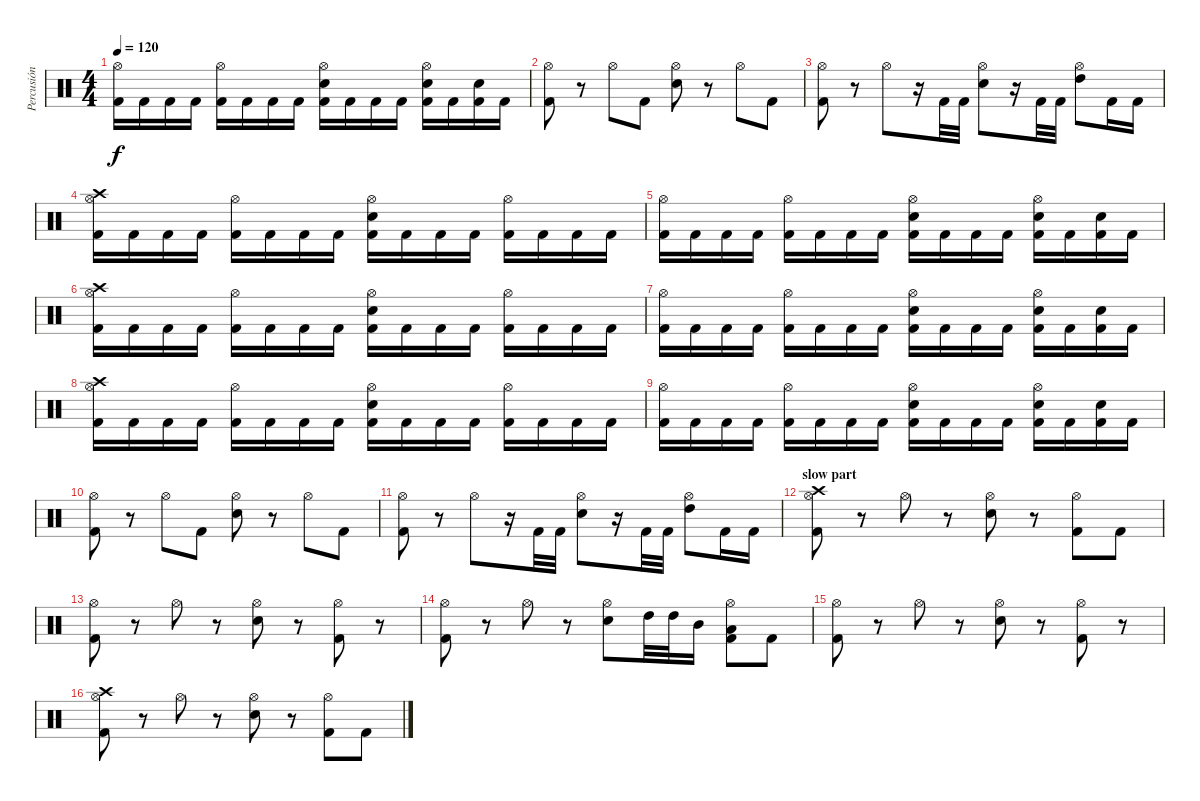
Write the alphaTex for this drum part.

\track ("Percusión" "Percusión") {instrument percussion}
\staff {score}
\articulation defaults
\ts (4 4)
\tempo 120
\clef neutral
\ks c
("Hi-Hat (open)" "Kick (hit) 2").16{dy f} "Kick (hit) 2".16 "Kick (hit) 2".16 "Kick (hit) 2".16 ("Hi-Hat (open)" "Kick (hit) 2").16 "Kick (hit) 2".16 "Kick (hit) 2".16 "Kick (hit) 2".16 ("Hi-Hat (open)" "Electric Snare (hit)" "Kick (hit) 2").16 "Kick (hit) 2".16 "Kick (hit) 2".16 "Kick (hit) 2".16 ("Hi-Hat (open)" "Electric Snare (hit)" "Kick (hit) 2").16 "Kick (hit) 2".16 ("Electric Snare (hit)" "Kick (hit) 2").16 "Kick (hit) 2".16 |
("Hi-Hat (open)" "Kick (hit) 2").8 r.8 "Hi-Hat (open)".8 "Kick (hit) 2".8 ("Hi-Hat (open)" "Electric Snare (hit)").8 r.8 "Hi-Hat (open)".8 "Kick (hit) 2".8 |
("Hi-Hat (open)" "Kick (hit) 2").8 r.8 "Hi-Hat (open)".8 r.16 "Kick (hit) 2".32 "Kick (hit) 2".32 ("Hi-Hat (open)" "Electric Snare (hit)").8 r.16 "Kick (hit) 2".32 "Kick (hit) 2".32 ("Hi-Hat (open)" "High Tom (hit)").8 "Kick (hit) 2".16 "Kick (hit) 2".16 |
("Crash high (hit)" "Hi-Hat (open)" "Kick (hit) 2").16 "Kick (hit) 2".16 "Kick (hit) 2".16 "Kick (hit) 2".16 ("Hi-Hat (open)" "Kick (hit) 2").16 "Kick (hit) 2".16 "Kick (hit) 2".16 "Kick (hit) 2".16 ("Hi-Hat (open)" "Electric Snare (hit)" "Kick (hit) 2").16 "Kick (hit) 2".16 "Kick (hit) 2".16 "Kick (hit) 2".16 ("Hi-Hat (open)" "Kick (hit) 2").16 "Kick (hit) 2".16 "Kick (hit) 2".16 "Kick (hit) 2".16 |
("Hi-Hat (open)" "Kick (hit) 2").16 "Kick (hit) 2".16 "Kick (hit) 2".16 "Kick (hit) 2".16 ("Hi-Hat (open)" "Kick (hit) 2").16 "Kick (hit) 2".16 "Kick (hit) 2".16 "Kick (hit) 2".16 ("Hi-Hat (open)" "Electric Snare (hit)" "Kick (hit) 2").16 "Kick (hit) 2".16 "Kick (hit) 2".16 "Kick (hit) 2".16 ("Hi-Hat (open)" "Electric Snare (hit)" "Kick (hit) 2").16 "Kick (hit) 2".16 ("Electric Snare (hit)" "Kick (hit) 2").16 "Kick (hit) 2".16 |
("Crash high (hit)" "Hi-Hat (open)" "Kick (hit) 2").16 "Kick (hit) 2".16 "Kick (hit) 2".16 "Kick (hit) 2".16 ("Hi-Hat (open)" "Kick (hit) 2").16 "Kick (hit) 2".16 "Kick (hit) 2".16 "Kick (hit) 2".16 ("Hi-Hat (open)" "Electric Snare (hit)" "Kick (hit) 2").16 "Kick (hit) 2".16 "Kick (hit) 2".16 "Kick (hit) 2".16 ("Hi-Hat (open)" "Kick (hit) 2").16 "Kick (hit) 2".16 "Kick (hit) 2".16 "Kick (hit) 2".16 |
("Hi-Hat (open)" "Kick (hit) 2").16 "Kick (hit) 2".16 "Kick (hit) 2".16 "Kick (hit) 2".16 ("Hi-Hat (open)" "Kick (hit) 2").16 "Kick (hit) 2".16 "Kick (hit) 2".16 "Kick (hit) 2".16 ("Hi-Hat (open)" "Electric Snare (hit)" "Kick (hit) 2").16 "Kick (hit) 2".16 "Kick (hit) 2".16 "Kick (hit) 2".16 ("Hi-Hat (open)" "Electric Snare (hit)" "Kick (hit) 2").16 "Kick (hit) 2".16 ("Electric Snare (hit)" "Kick (hit) 2").16 "Kick (hit) 2".16 |
("Crash high (hit)" "Hi-Hat (open)" "Kick (hit) 2").16 "Kick (hit) 2".16 "Kick (hit) 2".16 "Kick (hit) 2".16 ("Hi-Hat (open)" "Kick (hit) 2").16 "Kick (hit) 2".16 "Kick (hit) 2".16 "Kick (hit) 2".16 ("Hi-Hat (open)" "Electric Snare (hit)" "Kick (hit) 2").16 "Kick (hit) 2".16 "Kick (hit) 2".16 "Kick (hit) 2".16 ("Hi-Hat (open)" "Kick (hit) 2").16 "Kick (hit) 2".16 "Kick (hit) 2".16 "Kick (hit) 2".16 |
("Hi-Hat (open)" "Kick (hit) 2").16 "Kick (hit) 2".16 "Kick (hit) 2".16 "Kick (hit) 2".16 ("Hi-Hat (open)" "Kick (hit) 2").16 "Kick (hit) 2".16 "Kick (hit) 2".16 "Kick (hit) 2".16 ("Hi-Hat (open)" "Electric Snare (hit)" "Kick (hit) 2").16 "Kick (hit) 2".16 "Kick (hit) 2".16 "Kick (hit) 2".16 ("Hi-Hat (open)" "Electric Snare (hit)" "Kick (hit) 2").16 "Kick (hit) 2".16 ("Electric Snare (hit)" "Kick (hit) 2").16 "Kick (hit) 2".16 |
("Hi-Hat (open)" "Kick (hit) 2").8 r.8 "Hi-Hat (open)".8 "Kick (hit) 2".8 ("Hi-Hat (open)" "Electric Snare (hit)").8 r.8 "Hi-Hat (open)".8 "Kick (hit) 2".8 |
("Hi-Hat (open)" "Kick (hit) 2").8 r.8 "Hi-Hat (open)".8 r.16 "Kick (hit) 2".32 "Kick (hit) 2".32 ("Hi-Hat (open)" "Electric Snare (hit)").8 r.16 "Kick (hit) 2".32 "Kick (hit) 2".32 ("Hi-Hat (open)" "High Tom (hit)").8 "Kick (hit) 2".16 "Kick (hit) 2".16 |
\section ("" "slow part")
("Crash high (hit)" "Hi-Hat (open)" "Kick (hit) 2").8 r.8 "Hi-Hat (open)".8 r.8 ("Hi-Hat (open)" "Electric Snare (hit)").8 r.8 ("Hi-Hat (open)" "Kick (hit) 2").8 "Kick (hit) 2".8 |
("Hi-Hat (open)" "Kick (hit) 2").8 r.8 "Hi-Hat (open)".8 r.8 ("Hi-Hat (open)" "Electric Snare (hit)").8 r.8 ("Hi-Hat (open)" "Kick (hit) 2").8 r.8 |
("Hi-Hat (open)" "Kick (hit) 2").8 r.8 "Hi-Hat (open)".8 r.8 ("Hi-Hat (open)" "Electric Snare (hit)").8 "High Tom (hit)".32 "High Tom (hit)".32 "Mid Tom (hit)".16 ("Hi-Hat (open)" "Low Tom (hit)" "Kick (hit) 2").8 "Kick (hit) 2".8 |
("Hi-Hat (open)" "Kick (hit) 2").8 r.8 "Hi-Hat (open)".8 r.8 ("Hi-Hat (open)" "Electric Snare (hit)").8 r.8 ("Hi-Hat (open)" "Kick (hit) 2").8 r.8 |
("Crash high (hit)" "Hi-Hat (open)" "Kick (hit) 2").8 r.8 "Hi-Hat (open)".8 r.8 ("Hi-Hat (open)" "Electric Snare (hit)").8 r.8 ("Hi-Hat (open)" "Kick (hit) 2").8 "Kick (hit) 2".8
